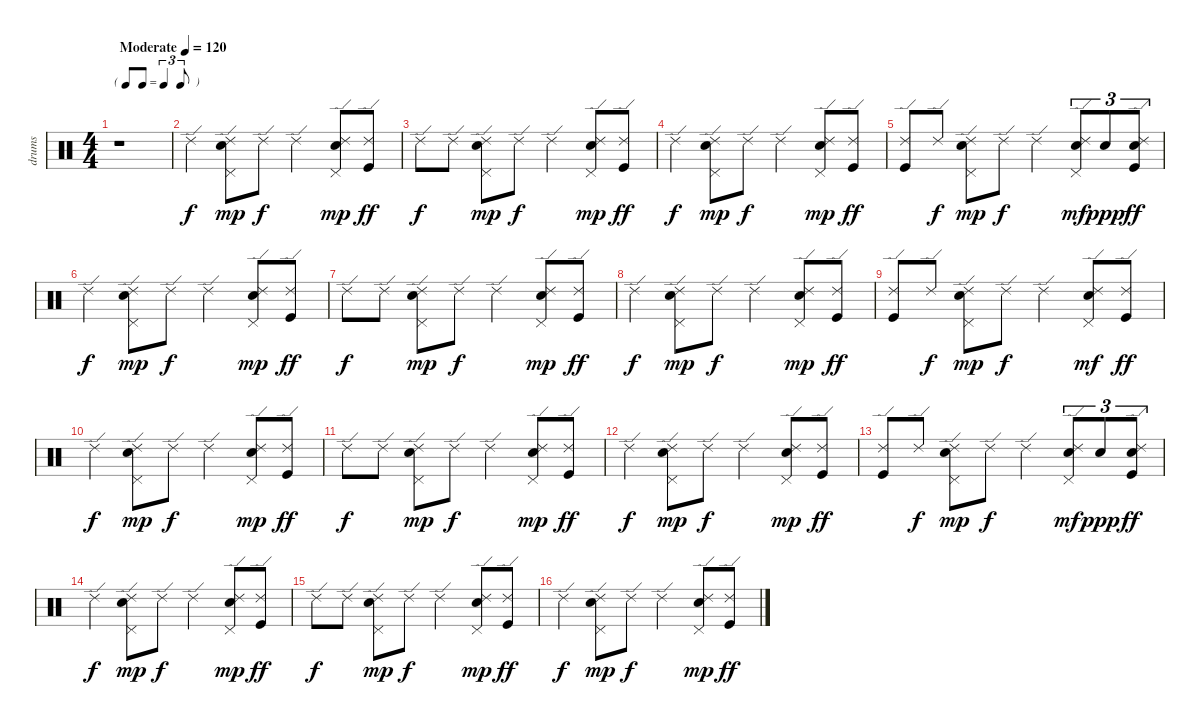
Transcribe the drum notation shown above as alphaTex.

\track ("drums" "drums") {instrument percussion}
\staff {score}
\articulation defaults
\ts (4 4)
\tf triplet8th
\tempo (120 "Moderate")
\clef neutral
\ks c
r.1{dy f} |
"Ride (edge) 2".4 ("Ride (edge) 2" "Pedal Hi-Hat (hit)" "Snare (hit) 2").8{dy mp} "Ride (edge) 2".8{dy f} "Ride (edge) 2".4 ("Ride (edge) 2" "Pedal Hi-Hat (hit)" "Snare (hit) 2").8{dy mp} ("Ride (edge) 2" "Kick (hit)").8{dy ff} |
"Ride (edge) 2".8{dy f} "Ride (edge) 2".8 ("Ride (edge) 2" "Pedal Hi-Hat (hit)" "Snare (hit) 2").8{dy mp} "Ride (edge) 2".8{dy f} "Ride (edge) 2".4 ("Ride (edge) 2" "Pedal Hi-Hat (hit)" "Snare (hit) 2").8{dy mp} ("Ride (edge) 2" "Kick (hit)").8{dy ff} |
"Ride (edge) 2".4{dy f} ("Ride (edge) 2" "Pedal Hi-Hat (hit)" "Snare (hit) 2").8{dy mp} "Ride (edge) 2".8{dy f} "Ride (edge) 2".4 ("Ride (edge) 2" "Pedal Hi-Hat (hit)" "Snare (hit) 2").8{dy mp} ("Ride (edge) 2" "Kick (hit)").8{dy ff} |
("Ride (edge) 2" "Kick (hit)").8 "Ride (edge) 2".8{dy f} ("Ride (edge) 2" "Pedal Hi-Hat (hit)" "Snare (hit) 2").8{dy mp} "Ride (edge) 2".8{dy f} "Ride (edge) 2".4 ("Ride (edge) 2" "Pedal Hi-Hat (hit)" "Snare (hit) 2").8{tu (3 2) dy mf} "Snare (hit) 2".8{tu (3 2) dy ppp} ("Ride (edge) 2" "Snare (hit) 2" "Kick (hit)").8{tu (3 2) dy ff} |
"Ride (edge) 2".4{dy f} ("Ride (edge) 2" "Pedal Hi-Hat (hit)" "Snare (hit) 2").8{dy mp} "Ride (edge) 2".8{dy f} "Ride (edge) 2".4 ("Ride (edge) 2" "Pedal Hi-Hat (hit)" "Snare (hit) 2").8{dy mp} ("Ride (edge) 2" "Kick (hit)").8{dy ff} |
"Ride (edge) 2".8{dy f} "Ride (edge) 2".8 ("Ride (edge) 2" "Pedal Hi-Hat (hit)" "Snare (hit) 2").8{dy mp} "Ride (edge) 2".8{dy f} "Ride (edge) 2".4 ("Ride (edge) 2" "Pedal Hi-Hat (hit)" "Snare (hit) 2").8{dy mp} ("Ride (edge) 2" "Kick (hit)").8{dy ff} |
"Ride (edge) 2".4{dy f} ("Ride (edge) 2" "Pedal Hi-Hat (hit)" "Snare (hit) 2").8{dy mp} "Ride (edge) 2".8{dy f} "Ride (edge) 2".4 ("Ride (edge) 2" "Pedal Hi-Hat (hit)" "Snare (hit) 2").8{dy mp} ("Ride (edge) 2" "Kick (hit)").8{dy ff} |
("Ride (edge) 2" "Kick (hit)").8 "Ride (edge) 2".8{dy f} ("Ride (edge) 2" "Pedal Hi-Hat (hit)" "Snare (hit) 2").8{dy mp} "Ride (edge) 2".8{dy f} "Ride (edge) 2".4 ("Ride (edge) 2" "Pedal Hi-Hat (hit)" "Snare (hit) 2").8{dy mf} ("Ride (edge) 2" "Kick (hit)").8{dy ff} |
"Ride (edge) 2".4{dy f} ("Ride (edge) 2" "Pedal Hi-Hat (hit)" "Snare (hit) 2").8{dy mp} "Ride (edge) 2".8{dy f} "Ride (edge) 2".4 ("Ride (edge) 2" "Pedal Hi-Hat (hit)" "Snare (hit) 2").8{dy mp} ("Ride (edge) 2" "Kick (hit)").8{dy ff} |
"Ride (edge) 2".8{dy f} "Ride (edge) 2".8 ("Ride (edge) 2" "Pedal Hi-Hat (hit)" "Snare (hit) 2").8{dy mp} "Ride (edge) 2".8{dy f} "Ride (edge) 2".4 ("Ride (edge) 2" "Pedal Hi-Hat (hit)" "Snare (hit) 2").8{dy mp} ("Ride (edge) 2" "Kick (hit)").8{dy ff} |
"Ride (edge) 2".4{dy f} ("Ride (edge) 2" "Pedal Hi-Hat (hit)" "Snare (hit) 2").8{dy mp} "Ride (edge) 2".8{dy f} "Ride (edge) 2".4 ("Ride (edge) 2" "Pedal Hi-Hat (hit)" "Snare (hit) 2").8{dy mp} ("Ride (edge) 2" "Kick (hit)").8{dy ff} |
("Ride (edge) 2" "Kick (hit)").8 "Ride (edge) 2".8{dy f} ("Ride (edge) 2" "Pedal Hi-Hat (hit)" "Snare (hit) 2").8{dy mp} "Ride (edge) 2".8{dy f} "Ride (edge) 2".4 ("Ride (edge) 2" "Pedal Hi-Hat (hit)" "Snare (hit) 2").8{tu (3 2) dy mf} "Snare (hit) 2".8{tu (3 2) dy ppp} ("Ride (edge) 2" "Snare (hit) 2" "Kick (hit)").8{tu (3 2) dy ff} |
"Ride (edge) 2".4{dy f} ("Ride (edge) 2" "Pedal Hi-Hat (hit)" "Snare (hit) 2").8{dy mp} "Ride (edge) 2".8{dy f} "Ride (edge) 2".4 ("Ride (edge) 2" "Pedal Hi-Hat (hit)" "Snare (hit) 2").8{dy mp} ("Ride (edge) 2" "Kick (hit)").8{dy ff} |
"Ride (edge) 2".8{dy f} "Ride (edge) 2".8 ("Ride (edge) 2" "Pedal Hi-Hat (hit)" "Snare (hit) 2").8{dy mp} "Ride (edge) 2".8{dy f} "Ride (edge) 2".4 ("Ride (edge) 2" "Pedal Hi-Hat (hit)" "Snare (hit) 2").8{dy mp} ("Ride (edge) 2" "Kick (hit)").8{dy ff} |
"Ride (edge) 2".4{dy f} ("Ride (edge) 2" "Pedal Hi-Hat (hit)" "Snare (hit) 2").8{dy mp} "Ride (edge) 2".8{dy f} "Ride (edge) 2".4 ("Ride (edge) 2" "Pedal Hi-Hat (hit)" "Snare (hit) 2").8{dy mp} ("Ride (edge) 2" "Kick (hit)").8{dy ff}
